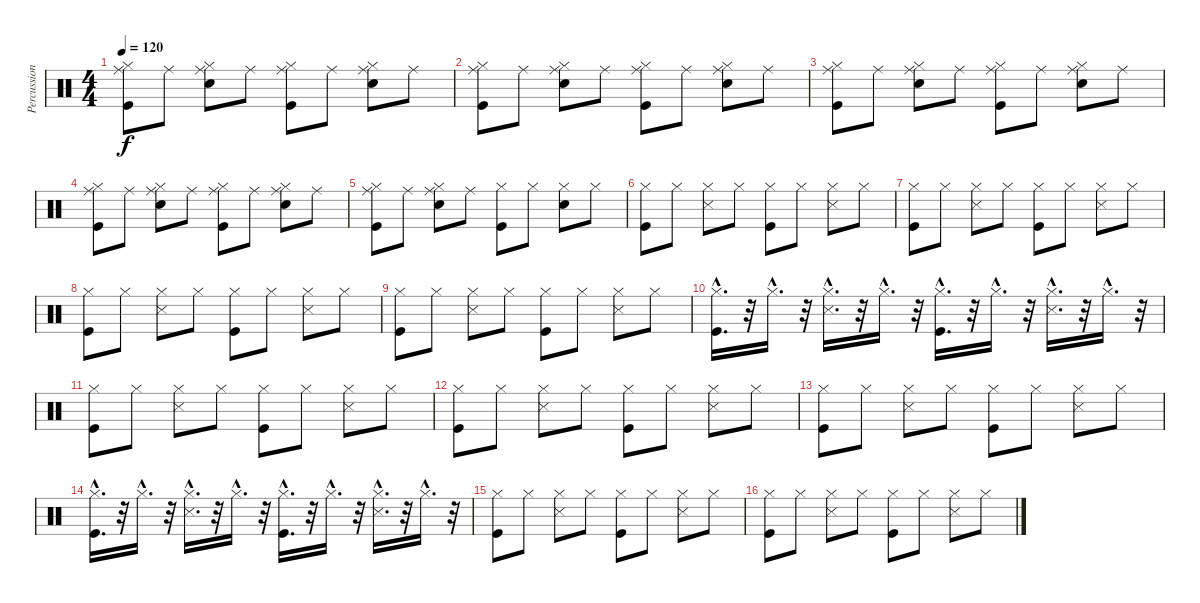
\track ("Percussion" "Percussion") {instrument percussion}
\staff {score}
\articulation defaults
\ts (4 4)
\tempo 120
\clef neutral
\ks c
("Hi-Hat (closed)" "Kick (hit)" "Ride (middle)").8{dy f} "Ride (middle)".8 ("Ride (middle)" "Hi-Hat (closed)" "Snare (hit) 2").8 "Ride (middle)".8 ("Ride (middle)" "Hi-Hat (closed)" "Kick (hit)").8 "Ride (middle)".8 ("Ride (middle)" "Hi-Hat (closed)" "Snare (hit) 2").8 "Ride (middle)".8 |
("Hi-Hat (closed)" "Kick (hit)" "Ride (middle)").8 "Ride (middle)".8 ("Ride (middle)" "Hi-Hat (closed)" "Snare (hit) 2").8 "Ride (middle)".8 ("Ride (middle)" "Hi-Hat (closed)" "Kick (hit)").8 "Ride (middle)".8 ("Ride (middle)" "Hi-Hat (closed)" "Snare (hit) 2").8 "Ride (middle)".8 |
("Hi-Hat (closed)" "Kick (hit)" "Ride (middle)").8 "Ride (middle)".8 ("Ride (middle)" "Hi-Hat (closed)" "Snare (hit) 2").8 "Ride (middle)".8 ("Ride (middle)" "Hi-Hat (closed)" "Kick (hit)").8 "Ride (middle)".8 ("Ride (middle)" "Hi-Hat (closed)" "Snare (hit) 2").8 "Ride (middle)".8 |
("Hi-Hat (closed)" "Kick (hit)" "Ride (middle)").8 "Ride (middle)".8 ("Ride (middle)" "Hi-Hat (closed)" "Snare (hit) 2").8 "Ride (middle)".8 ("Ride (middle)" "Hi-Hat (closed)" "Kick (hit)").8 "Ride (middle)".8 ("Ride (middle)" "Hi-Hat (closed)" "Snare (hit) 2").8 "Ride (middle)".8 |
("Hi-Hat (closed)" "Kick (hit)" "Ride (middle)").8 "Ride (middle)".8 ("Ride (middle)" "Hi-Hat (closed)" "Snare (hit) 2").8 "Ride (middle)".8 ("Hi-Hat (closed)" "Kick (hit)").8 "Hi-Hat (closed)".8 ("Hi-Hat (closed)" "Snare (hit) 2").8 "Hi-Hat (closed)".8 |
("Kick (hit)" "Hi-Hat (closed)").8 "Hi-Hat (closed)".8 ("Snare (side stick) 3" "Hi-Hat (closed)").8 "Hi-Hat (closed)".8 ("Kick (hit)" "Hi-Hat (closed)").8 "Hi-Hat (closed)".8 ("Snare (side stick) 3" "Hi-Hat (closed)").8 "Hi-Hat (closed)".8 |
("Kick (hit)" "Hi-Hat (closed)").8 "Hi-Hat (closed)".8 ("Snare (side stick) 3" "Hi-Hat (closed)").8 "Hi-Hat (closed)".8 ("Kick (hit)" "Hi-Hat (closed)").8 "Hi-Hat (closed)".8 ("Snare (side stick) 3" "Hi-Hat (closed)").8 "Hi-Hat (closed)".8 |
("Kick (hit)" "Hi-Hat (closed)").8 "Hi-Hat (closed)".8 ("Snare (side stick) 3" "Hi-Hat (closed)").8 "Hi-Hat (closed)".8 ("Kick (hit)" "Hi-Hat (closed)").8 "Hi-Hat (closed)".8 ("Snare (side stick) 3" "Hi-Hat (closed)").8 "Hi-Hat (closed)".8 |
("Kick (hit)" "Hi-Hat (closed)").8 "Hi-Hat (closed)".8 ("Snare (side stick) 3" "Hi-Hat (closed)").8 "Hi-Hat (closed)".8 ("Kick (hit)" "Hi-Hat (closed)").8 "Hi-Hat (closed)".8 ("Snare (side stick) 3" "Hi-Hat (closed)").8 "Hi-Hat (closed)".8 |
("Kick (hit)"{hac} "Hi-Hat (closed)"{hac}).16{d} r.32 "Hi-Hat (closed)"{hac}.16{d} r.32 ("Snare (side stick) 3"{hac} "Hi-Hat (closed)"{hac}).16{d} r.32 "Hi-Hat (closed)"{hac}.16{d} r.32 ("Kick (hit)"{hac} "Hi-Hat (closed)"{hac}).16{d} r.32 "Hi-Hat (closed)"{hac}.16{d} r.32 ("Snare (side stick) 3"{hac} "Hi-Hat (closed)"{hac}).16{d} r.32 "Hi-Hat (closed)"{hac}.16{d} r.32 |
("Kick (hit)" "Hi-Hat (closed)").8 "Hi-Hat (closed)".8 ("Snare (side stick) 3" "Hi-Hat (closed)").8 "Hi-Hat (closed)".8 ("Kick (hit)" "Hi-Hat (closed)").8 "Hi-Hat (closed)".8 ("Snare (side stick) 3" "Hi-Hat (closed)").8 "Hi-Hat (closed)".8 |
("Kick (hit)" "Hi-Hat (closed)").8 "Hi-Hat (closed)".8 ("Snare (side stick) 3" "Hi-Hat (closed)").8 "Hi-Hat (closed)".8 ("Kick (hit)" "Hi-Hat (closed)").8 "Hi-Hat (closed)".8 ("Snare (side stick) 3" "Hi-Hat (closed)").8 "Hi-Hat (closed)".8 |
("Kick (hit)" "Hi-Hat (closed)").8 "Hi-Hat (closed)".8 ("Snare (side stick) 3" "Hi-Hat (closed)").8 "Hi-Hat (closed)".8 ("Kick (hit)" "Hi-Hat (closed)").8 "Hi-Hat (closed)".8 ("Snare (side stick) 3" "Hi-Hat (closed)").8 "Hi-Hat (closed)".8 |
("Kick (hit)"{hac} "Hi-Hat (closed)"{hac}).16{d} r.32 "Hi-Hat (closed)"{hac}.16{d} r.32 ("Snare (side stick) 3"{hac} "Hi-Hat (closed)"{hac}).16{d} r.32 "Hi-Hat (closed)"{hac}.16{d} r.32 ("Kick (hit)"{hac} "Hi-Hat (closed)"{hac}).16{d} r.32 "Hi-Hat (closed)"{hac}.16{d} r.32 ("Snare (side stick) 3"{hac} "Hi-Hat (closed)"{hac}).16{d} r.32 "Hi-Hat (closed)"{hac}.16{d} r.32 |
("Kick (hit)" "Hi-Hat (closed)").8 "Hi-Hat (closed)".8 ("Snare (side stick) 3" "Hi-Hat (closed)").8 "Hi-Hat (closed)".8 ("Kick (hit)" "Hi-Hat (closed)").8 "Hi-Hat (closed)".8 ("Snare (side stick) 3" "Hi-Hat (closed)").8 "Hi-Hat (closed)".8 |
("Kick (hit)" "Hi-Hat (closed)").8 "Hi-Hat (closed)".8 ("Snare (side stick) 3" "Hi-Hat (closed)").8 "Hi-Hat (closed)".8 ("Kick (hit)" "Hi-Hat (closed)").8 "Hi-Hat (closed)".8 ("Snare (side stick) 3" "Hi-Hat (closed)").8 "Hi-Hat (closed)".8
